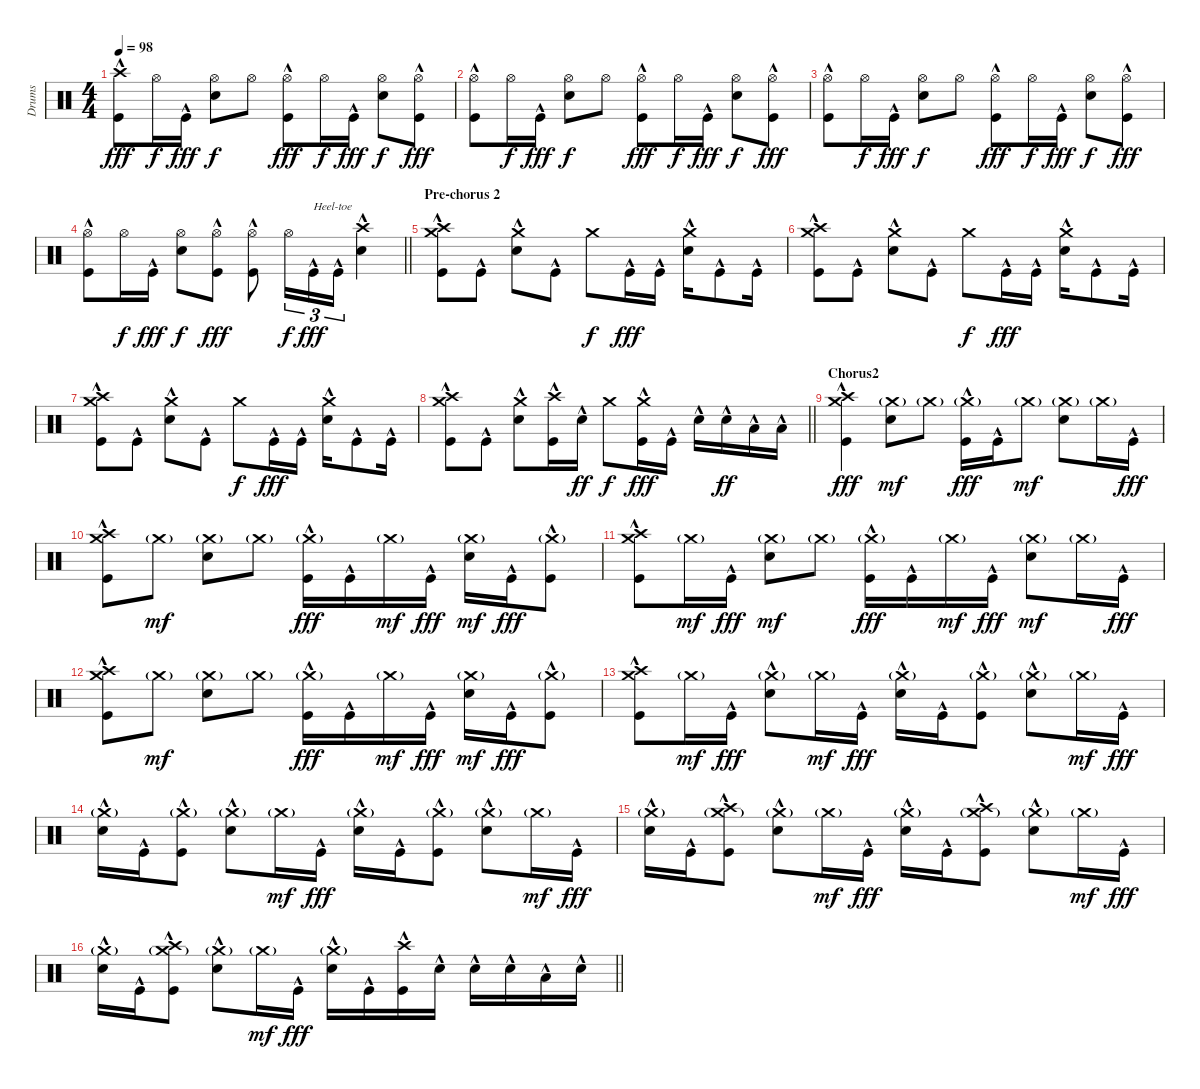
\track ("Drums" "Drums") {instrument percussion}
\staff {score}
\articulation defaults
\ts (4 4)
\tempo 98
\clef neutral
\ks c
("Crash high (hit)" "Kick (hit)"{hac}).8{dy fff} "Hi-Hat (open)".16{dy f} "Kick (hit)"{hac}.16{dy fff} ("Hi-Hat (open)" "Snare (hit) 2").8{dy f} "Hi-Hat (open)".8 ("Hi-Hat (open)" "Kick (hit)"{hac}).8{dy fff} "Hi-Hat (open)".16{dy f} "Kick (hit)"{hac}.16{dy fff} ("Hi-Hat (open)" "Snare (hit) 2").8{dy f} ("Hi-Hat (open)" "Kick (hit)"{hac}).8{dy fff} |
("Hi-Hat (open)" "Kick (hit)"{hac}).8 "Hi-Hat (open)".16{dy f} "Kick (hit)"{hac}.16{dy fff} ("Hi-Hat (open)" "Snare (hit) 2").8{dy f} "Hi-Hat (open)".8 ("Hi-Hat (open)" "Kick (hit)"{hac}).8{dy fff} "Hi-Hat (open)".16{dy f} "Kick (hit)"{hac}.16{dy fff} ("Hi-Hat (open)" "Snare (hit) 2").8{dy f} ("Hi-Hat (open)" "Kick (hit)"{hac}).8{dy fff} |
("Hi-Hat (open)" "Kick (hit)"{hac}).8 "Hi-Hat (open)".16{dy f} "Kick (hit)"{hac}.16{dy fff} ("Hi-Hat (open)" "Snare (hit) 2").8{dy f} "Hi-Hat (open)".8 ("Hi-Hat (open)" "Kick (hit)"{hac}).8{dy fff} "Hi-Hat (open)".16{dy f} "Kick (hit)"{hac}.16{dy fff} ("Hi-Hat (open)" "Snare (hit) 2").8{dy f} ("Hi-Hat (open)" "Kick (hit)"{hac}).8{dy fff} |
\barLineRight lightlight
("Hi-Hat (open)" "Kick (hit)"{hac}).8 "Hi-Hat (open)".16{dy f} "Kick (hit)"{hac}.16{dy fff} ("Hi-Hat (open)" "Snare (hit) 2").8{dy f} ("Hi-Hat (open)" "Kick (hit)"{hac}).8{dy fff} ("Hi-Hat (open)" "Kick (hit)"{hac}).8 "Hi-Hat (open)".16{tu (3 2) dy f} "Kick (hit)"{hac}.16{tu (3 2) txt "Heel-toe" dy fff} "Kick (hit)"{hac}.16{tu (3 2)} ("Crash high (hit)"{hac} "Snare (hit) 2"{hac}).4 |
\section ("" "Pre-chorus 2")
("Crash medium (hit)" "Crash high (hit)" "Kick (hit)"{hac}).8 "Kick (hit)"{hac}.8 ("Crash medium (hit)" "Snare (hit) 2"{hac}).8 "Kick (hit)"{hac}.8 "Crash medium (hit)".8{dy f} "Kick (hit)"{hac}.16{dy fff} "Kick (hit)"{hac}.16 ("Crash medium (hit)" "Snare (hit) 2"{hac}).16 "Kick (hit)"{hac}.8 "Kick (hit)"{hac}.16 |
("Crash medium (hit)" "Crash high (hit)" "Kick (hit)"{hac}).8 "Kick (hit)"{hac}.8 ("Crash medium (hit)" "Snare (hit) 2"{hac}).8 "Kick (hit)"{hac}.8 "Crash medium (hit)".8{dy f} "Kick (hit)"{hac}.16{dy fff} "Kick (hit)"{hac}.16 ("Crash medium (hit)" "Snare (hit) 2"{hac}).16 "Kick (hit)"{hac}.8 "Kick (hit)"{hac}.16 |
("Crash medium (hit)" "Crash high (hit)" "Kick (hit)"{hac}).8 "Kick (hit)"{hac}.8 ("Crash medium (hit)" "Snare (hit) 2"{hac}).8 "Kick (hit)"{hac}.8 "Crash medium (hit)".8{dy f} "Kick (hit)"{hac}.16{dy fff} "Kick (hit)"{hac}.16 ("Crash medium (hit)" "Snare (hit) 2"{hac}).16 "Kick (hit)"{hac}.8 "Kick (hit)"{hac}.16 |
\barLineRight lightlight
("Crash medium (hit)" "Crash high (hit)" "Kick (hit)"{hac}).8 "Kick (hit)"{hac}.8 ("Crash medium (hit)" "Snare (hit) 2"{hac}).8 ("Crash high (hit)" "Kick (hit)"{hac}).16 "Snare (hit) 2"{hac}.16{dy ff} "Crash medium (hit)".8{dy f} ("Crash medium (hit)" "Kick (hit)"{hac}).16{dy fff} "Kick (hit)"{hac}.16 "Snare (hit) 2"{hac}.16 "Snare (hit) 2"{hac}.16{dy ff} "Low Tom (hit)"{hac}.16 "Low Tom (hit)"{hac}.16 |
\section ("" "Chorus2")
("Crash medium (hit)" "Crash high (hit)" "Kick (hit)"{hac}).4{dy fff} ("Crash medium (hit)"{g} "Snare (hit) 2").8{dy mf} "Crash medium (hit)"{g}.8 ("Crash medium (hit)"{g} "Kick (hit)"{hac}).16{dy fff} "Kick (hit)"{hac}.16 "Crash medium (hit)"{g}.8{dy mf} ("Crash medium (hit)"{g} "Snare (hit) 2").8 "Crash medium (hit)"{g}.16 "Kick (hit)"{hac}.16{dy fff} |
("Crash medium (hit)" "Crash high (hit)" "Kick (hit)"{hac}).8 "Crash medium (hit)"{g}.8{dy mf} ("Crash medium (hit)"{g} "Snare (hit) 2").8 "Crash medium (hit)"{g}.8 ("Crash medium (hit)"{g} "Kick (hit)"{hac}).16{dy fff} "Kick (hit)"{hac}.16 "Crash medium (hit)"{g}.16{dy mf} "Kick (hit)"{hac}.16{dy fff} ("Crash medium (hit)"{g} "Snare (hit) 2").16{dy mf} "Kick (hit)"{hac}.16{dy fff} ("Crash medium (hit)"{g} "Kick (hit)"{hac}).8 |
("Crash medium (hit)" "Crash high (hit)" "Kick (hit)"{hac}).8 "Crash medium (hit)"{g}.16{dy mf} "Kick (hit)"{hac}.16{dy fff} ("Crash medium (hit)"{g} "Snare (hit) 2").8{dy mf} "Crash medium (hit)"{g}.8 ("Crash medium (hit)"{g} "Kick (hit)"{hac}).16{dy fff} "Kick (hit)"{hac}.16 "Crash medium (hit)"{g}.16{dy mf} "Kick (hit)"{hac}.16{dy fff} ("Crash medium (hit)"{g} "Snare (hit) 2").8{dy mf} "Crash medium (hit)"{g}.16 "Kick (hit)"{hac}.16{dy fff} |
("Crash medium (hit)" "Crash high (hit)" "Kick (hit)"{hac}).8 "Crash medium (hit)"{g}.8{dy mf} ("Crash medium (hit)"{g} "Snare (hit) 2").8 "Crash medium (hit)"{g}.8 ("Crash medium (hit)"{g} "Kick (hit)"{hac}).16{dy fff} "Kick (hit)"{hac}.16 "Crash medium (hit)"{g}.16{dy mf} "Kick (hit)"{hac}.16{dy fff} ("Crash medium (hit)"{g} "Snare (hit) 2").16{dy mf} "Kick (hit)"{hac}.16{dy fff} ("Crash medium (hit)"{g} "Kick (hit)"{hac}).8 |
("Crash medium (hit)" "Crash high (hit)" "Kick (hit)"{hac}).8 "Crash medium (hit)"{g}.16{dy mf} "Kick (hit)"{hac}.16{dy fff} ("Crash medium (hit)"{g} "Snare (hit) 2"{hac}).8 "Crash medium (hit)"{g}.16{dy mf} "Kick (hit)"{hac}.16{dy fff} ("Crash medium (hit)"{g} "Snare (hit) 2"{hac}).16 "Kick (hit)"{hac}.16 ("Crash medium (hit)"{g} "Kick (hit)"{hac}).8 ("Crash medium (hit)"{g} "Snare (hit) 2"{hac}).8 "Crash medium (hit)"{g}.16{dy mf} "Kick (hit)"{hac}.16{dy fff} |
("Crash medium (hit)"{g} "Snare (hit) 2"{hac}).16 "Kick (hit)"{hac}.16 ("Crash medium (hit)"{g} "Kick (hit)"{hac}).8 ("Crash medium (hit)"{g} "Snare (hit) 2"{hac}).8 "Crash medium (hit)"{g}.16{dy mf} "Kick (hit)"{hac}.16{dy fff} ("Crash medium (hit)"{g} "Snare (hit) 2"{hac}).16 "Kick (hit)"{hac}.16 ("Crash medium (hit)"{g} "Kick (hit)"{hac}).8 ("Crash medium (hit)"{g} "Snare (hit) 2"{hac}).8 "Crash medium (hit)"{g}.16{dy mf} "Kick (hit)"{hac}.16{dy fff} |
("Crash medium (hit)"{g} "Snare (hit) 2"{hac}).16 "Kick (hit)"{hac}.16 ("Crash medium (hit)"{g} "Crash high (hit)" "Kick (hit)"{hac}).8 ("Crash medium (hit)"{g} "Snare (hit) 2"{hac}).8 "Crash medium (hit)"{g}.16{dy mf} "Kick (hit)"{hac}.16{dy fff} ("Crash medium (hit)"{g} "Snare (hit) 2"{hac}).16 "Kick (hit)"{hac}.16 ("Crash medium (hit)"{g} "Crash high (hit)" "Kick (hit)"{hac}).8 ("Crash medium (hit)"{g} "Snare (hit) 2"{hac}).8 "Crash medium (hit)"{g}.16{dy mf} "Kick (hit)"{hac}.16{dy fff} |
\barLineRight lightlight
("Crash medium (hit)"{g} "Snare (hit) 2"{hac}).16 "Kick (hit)"{hac}.16 ("Crash medium (hit)"{g} "Crash high (hit)" "Kick (hit)"{hac}).8 ("Crash medium (hit)"{g} "Snare (hit) 2"{hac}).8 "Crash medium (hit)"{g}.16{dy mf} "Kick (hit)"{hac}.16{dy fff} ("Crash medium (hit)"{g} "Snare (hit) 2"{hac}).16 "Kick (hit)"{hac}.16 ("Crash high (hit)" "Kick (hit)"{hac}).16 "Snare (hit) 2"{hac}.16 "Snare (hit) 2"{hac}.16 "Snare (hit) 2"{hac}.16 "Low Tom (hit)"{hac}.16 "Snare (hit) 2"{hac}.16
